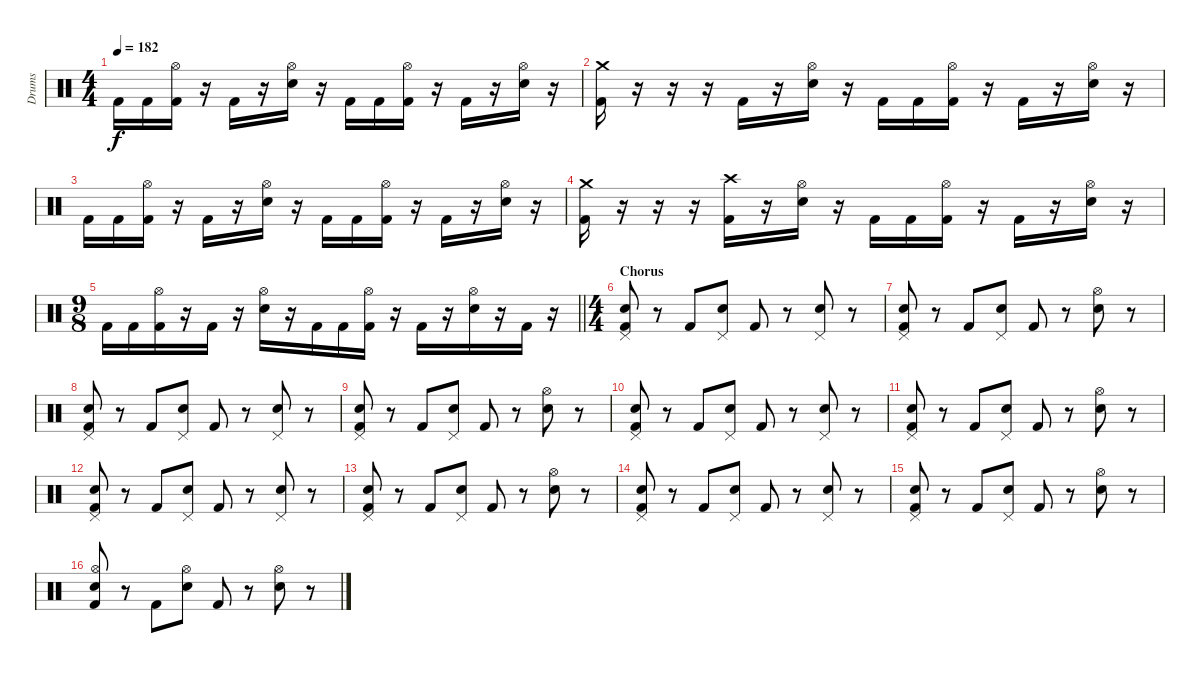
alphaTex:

\track ("Drums" "Drums") {instrument percussion}
\staff {score}
\articulation defaults
\ts (4 4)
\tempo 182
\clef neutral
\ks c "Kick (hit) 2".16{dy f} "Kick (hit) 2".16
("Hi-Hat (open)" "Kick (hit) 2").16 r.16 "Kick (hit) 2".16 r.16 ("Hi-Hat (open)" "Electric Snare (hit)").16 r.16 "Kick (hit) 2".16 "Kick (hit) 2".16 ("Hi-Hat (open)" "Kick (hit) 2").16 r.16 "Kick (hit) 2".16 r.16 ("Hi-Hat (open)" "Electric Snare (hit)").16 r.16 |
("Crash medium (hit)" "Kick (hit) 2").16 r.16 r.16 r.16 "Kick (hit) 2".16 r.16 ("Hi-Hat (open)" "Electric Snare (hit)").16 r.16 "Kick (hit) 2".16 "Kick (hit) 2".16 ("Hi-Hat (open)" "Kick (hit) 2").16 r.16 "Kick (hit) 2".16 r.16 ("Hi-Hat (open)" "Electric Snare (hit)").16 r.16 |
"Kick (hit) 2".16 "Kick (hit) 2".16 ("Hi-Hat (open)" "Kick (hit) 2").16 r.16 "Kick (hit) 2".16 r.16 ("Hi-Hat (open)" "Electric Snare (hit)").16 r.16 "Kick (hit) 2".16 "Kick (hit) 2".16 ("Hi-Hat (open)" "Kick (hit) 2").16 r.16 "Kick (hit) 2".16 r.16 ("Hi-Hat (open)" "Electric Snare (hit)").16 r.16 |
("Crash medium (hit)" "Kick (hit) 2").16 r.16 r.16 r.16 ("Crash high (hit)" "Kick (hit) 2").16 r.16 ("Hi-Hat (open)" "Electric Snare (hit)").16 r.16 "Kick (hit) 2".16 "Kick (hit) 2".16 ("Hi-Hat (open)" "Kick (hit) 2").16 r.16 "Kick (hit) 2".16 r.16 ("Hi-Hat (open)" "Electric Snare (hit)").16 r.16 |
\ts (9 8)
\barLineRight lightlight "Kick (hit) 2".16 "Kick (hit) 2".16
("Hi-Hat (open)" "Kick (hit) 2").16 r.16 "Kick (hit) 2".16 r.16 ("Hi-Hat (open)" "Electric Snare (hit)").16 r.16 "Kick (hit) 2".16 "Kick (hit) 2".16 ("Hi-Hat (open)" "Kick (hit) 2").16 r.16 "Kick (hit) 2".16 r.16 ("Hi-Hat (open)" "Electric Snare (hit)").16 r.16 "Kick (hit) 2".16 r.16 |
\ts (4 4)
\section ("" "Chorus")
("Pedal Hi-Hat (hit)" "Electric Snare (hit)" "Kick (hit) 2").8 r.8 "Kick (hit) 2".8 ("Pedal Hi-Hat (hit)" "Electric Snare (hit)").8 "Kick (hit) 2".8 r.8 ("Pedal Hi-Hat (hit)" "Electric Snare (hit)").8 r.8 |
("Pedal Hi-Hat (hit)" "Electric Snare (hit)" "Kick (hit) 2").8 r.8 "Kick (hit) 2".8 ("Pedal Hi-Hat (hit)" "Electric Snare (hit)").8 "Kick (hit) 2".8 r.8 ("Hi-Hat (open)" "Electric Snare (hit)").8 r.8 |
("Pedal Hi-Hat (hit)" "Electric Snare (hit)" "Kick (hit) 2").8 r.8 "Kick (hit) 2".8 ("Pedal Hi-Hat (hit)" "Electric Snare (hit)").8 "Kick (hit) 2".8 r.8 ("Pedal Hi-Hat (hit)" "Electric Snare (hit)").8 r.8 |
("Pedal Hi-Hat (hit)" "Electric Snare (hit)" "Kick (hit) 2").8 r.8 "Kick (hit) 2".8 ("Pedal Hi-Hat (hit)" "Electric Snare (hit)").8 "Kick (hit) 2".8 r.8 ("Hi-Hat (open)" "Electric Snare (hit)").8 r.8 |
("Pedal Hi-Hat (hit)" "Electric Snare (hit)" "Kick (hit) 2").8 r.8 "Kick (hit) 2".8 ("Pedal Hi-Hat (hit)" "Electric Snare (hit)").8 "Kick (hit) 2".8 r.8 ("Pedal Hi-Hat (hit)" "Electric Snare (hit)").8 r.8 |
("Pedal Hi-Hat (hit)" "Electric Snare (hit)" "Kick (hit) 2").8 r.8 "Kick (hit) 2".8 ("Pedal Hi-Hat (hit)" "Electric Snare (hit)").8 "Kick (hit) 2".8 r.8 ("Hi-Hat (open)" "Electric Snare (hit)").8 r.8 |
("Pedal Hi-Hat (hit)" "Electric Snare (hit)" "Kick (hit) 2").8 r.8 "Kick (hit) 2".8 ("Pedal Hi-Hat (hit)" "Electric Snare (hit)").8 "Kick (hit) 2".8 r.8 ("Pedal Hi-Hat (hit)" "Electric Snare (hit)").8 r.8 |
("Pedal Hi-Hat (hit)" "Electric Snare (hit)" "Kick (hit) 2").8 r.8 "Kick (hit) 2".8 ("Pedal Hi-Hat (hit)" "Electric Snare (hit)").8 "Kick (hit) 2".8 r.8 ("Hi-Hat (open)" "Electric Snare (hit)").8 r.8 |
("Pedal Hi-Hat (hit)" "Electric Snare (hit)" "Kick (hit) 2").8 r.8 "Kick (hit) 2".8 ("Pedal Hi-Hat (hit)" "Electric Snare (hit)").8 "Kick (hit) 2".8 r.8 ("Pedal Hi-Hat (hit)" "Electric Snare (hit)").8 r.8 |
("Pedal Hi-Hat (hit)" "Electric Snare (hit)" "Kick (hit) 2").8 r.8 "Kick (hit) 2".8 ("Pedal Hi-Hat (hit)" "Electric Snare (hit)").8 "Kick (hit) 2".8 r.8 ("Hi-Hat (open)" "Electric Snare (hit)").8 r.8 |
("Hi-Hat (open)" "Electric Snare (hit)" "Kick (hit) 2").8 r.8 "Kick (hit) 2".8 ("Hi-Hat (open)" "Electric Snare (hit)").8 "Kick (hit) 2".8 r.8 ("Hi-Hat (open)" "Electric Snare (hit)").8 r.8
